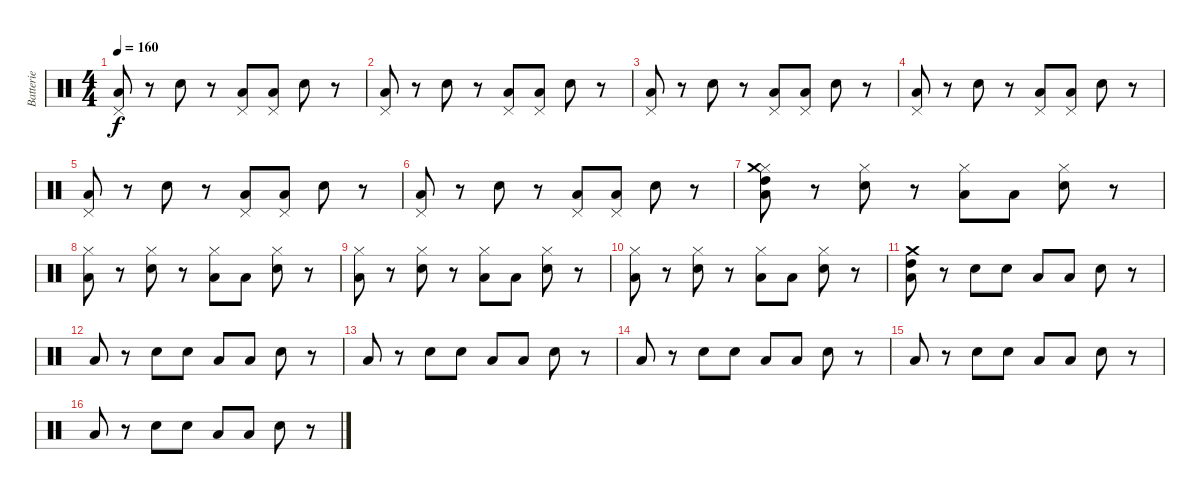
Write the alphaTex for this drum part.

\track ("Batterie" "Batterie") {instrument percussion}
\staff {score}
\articulation defaults
\ts (4 4)
\tempo 160
\clef neutral
\ks c
("Pedal Hi-Hat (hit)" "Low Floor Tom (hit)").8{dy f} r.8 "Electric Snare (hit)".8 r.8 ("Pedal Hi-Hat (hit)" "Low Floor Tom (hit)").8 ("Pedal Hi-Hat (hit)" "Low Floor Tom (hit)").8 "Electric Snare (hit)".8 r.8 |
("Pedal Hi-Hat (hit)" "Low Floor Tom (hit)").8 r.8 "Electric Snare (hit)".8 r.8 ("Pedal Hi-Hat (hit)" "Low Floor Tom (hit)").8 ("Pedal Hi-Hat (hit)" "Low Floor Tom (hit)").8 "Electric Snare (hit)".8 r.8 |
("Pedal Hi-Hat (hit)" "Low Floor Tom (hit)").8 r.8 "Electric Snare (hit)".8 r.8 ("Pedal Hi-Hat (hit)" "Low Floor Tom (hit)").8 ("Pedal Hi-Hat (hit)" "Low Floor Tom (hit)").8 "Electric Snare (hit)".8 r.8 |
("Pedal Hi-Hat (hit)" "Low Floor Tom (hit)").8 r.8 "Electric Snare (hit)".8 r.8 ("Pedal Hi-Hat (hit)" "Low Floor Tom (hit)").8 ("Pedal Hi-Hat (hit)" "Low Floor Tom (hit)").8 "Electric Snare (hit)".8 r.8 |
("Pedal Hi-Hat (hit)" "Low Floor Tom (hit)").8 r.8 "Electric Snare (hit)".8 r.8 ("Pedal Hi-Hat (hit)" "Low Floor Tom (hit)").8 ("Pedal Hi-Hat (hit)" "Low Floor Tom (hit)").8 "Electric Snare (hit)".8 r.8 |
("Pedal Hi-Hat (hit)" "Low Floor Tom (hit)").8 r.8 "Electric Snare (hit)".8 r.8 ("Pedal Hi-Hat (hit)" "Low Floor Tom (hit)").8 ("Pedal Hi-Hat (hit)" "Low Floor Tom (hit)").8 "Electric Snare (hit)".8 r.8 |
("Hi-Hat (closed)" "Low Floor Tom (hit)" "Crash medium (hit)" "High Tom (hit)").8 r.8 ("Hi-Hat (closed)" "Electric Snare (hit)").8 r.8 ("Hi-Hat (closed)" "Low Floor Tom (hit)").8 "Low Floor Tom (hit)".8 ("Hi-Hat (closed)" "Electric Snare (hit)").8 r.8 |
("Hi-Hat (closed)" "Low Floor Tom (hit)").8 r.8 ("Hi-Hat (closed)" "Electric Snare (hit)").8 r.8 ("Hi-Hat (closed)" "Low Floor Tom (hit)").8 "Low Floor Tom (hit)".8 ("Hi-Hat (closed)" "Electric Snare (hit)").8 r.8 |
("Hi-Hat (closed)" "Low Floor Tom (hit)").8 r.8 ("Hi-Hat (closed)" "Electric Snare (hit)").8 r.8 ("Hi-Hat (closed)" "Low Floor Tom (hit)").8 "Low Floor Tom (hit)".8 ("Hi-Hat (closed)" "Electric Snare (hit)").8 r.8 |
("Hi-Hat (closed)" "Low Floor Tom (hit)").8 r.8 ("Hi-Hat (closed)" "Electric Snare (hit)").8 r.8 ("Hi-Hat (closed)" "Low Floor Tom (hit)").8 "Low Floor Tom (hit)".8 ("Hi-Hat (closed)" "Electric Snare (hit)").8 r.8 |
("Low Floor Tom (hit)" "Crash medium (hit)" "High Tom (hit)").8 r.8 "Electric Snare (hit)".8 "Electric Snare (hit)".8 "Low Floor Tom (hit)".8 "Low Floor Tom (hit)".8 "Electric Snare (hit)".8 r.8 |
"Low Floor Tom (hit)".8 r.8 "Electric Snare (hit)".8 "Electric Snare (hit)".8 "Low Floor Tom (hit)".8 "Low Floor Tom (hit)".8 "Electric Snare (hit)".8 r.8 |
"Low Floor Tom (hit)".8 r.8 "Electric Snare (hit)".8 "Electric Snare (hit)".8 "Low Floor Tom (hit)".8 "Low Floor Tom (hit)".8 "Electric Snare (hit)".8 r.8 |
"Low Floor Tom (hit)".8 r.8 "Electric Snare (hit)".8 "Electric Snare (hit)".8 "Low Floor Tom (hit)".8 "Low Floor Tom (hit)".8 "Electric Snare (hit)".8 r.8 |
"Low Floor Tom (hit)".8 r.8 "Electric Snare (hit)".8 "Electric Snare (hit)".8 "Low Floor Tom (hit)".8 "Low Floor Tom (hit)".8 "Electric Snare (hit)".8 r.8 |
"Low Floor Tom (hit)".8 r.8 "Electric Snare (hit)".8 "Electric Snare (hit)".8 "Low Floor Tom (hit)".8 "Low Floor Tom (hit)".8 "Electric Snare (hit)".8 r.8
